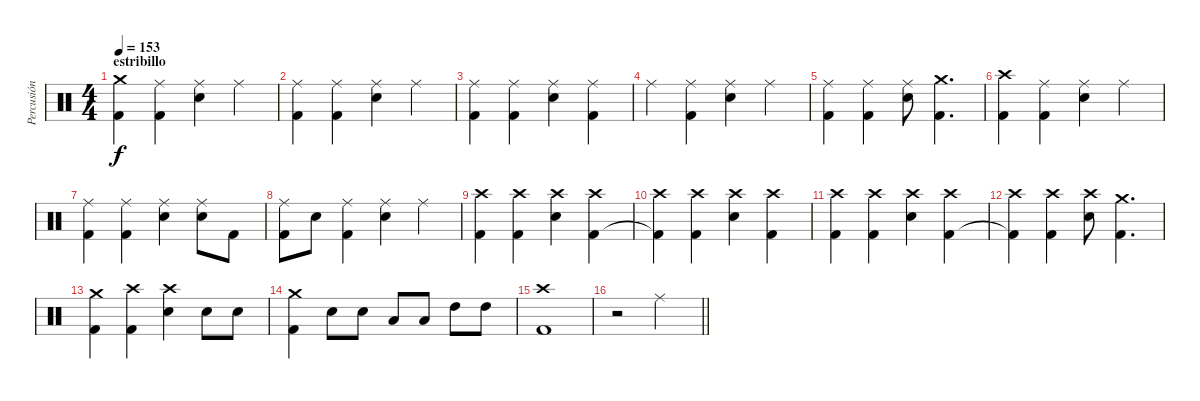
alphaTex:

\track ("Percusión" "Percusión") {instrument percussion}
\staff {score}
\articulation defaults
\ts (4 4)
\section ("" "estribillo")
\tempo 153
\clef neutral
\ks c
("Crash medium (hit)" "Kick (hit) 2").4{dy f} ("Ride (middle)" "Kick (hit) 2").4 ("Ride (middle)" "Electric Snare (hit)").4 "Ride (middle)".4 |
("Ride (middle)" "Kick (hit) 2").4 ("Ride (middle)" "Kick (hit) 2").4 ("Ride (middle)" "Electric Snare (hit)").4 "Ride (middle)".4 |
("Ride (middle)" "Kick (hit) 2").4 ("Ride (middle)" "Kick (hit) 2").4 ("Ride (middle)" "Electric Snare (hit)").4 ("Ride (middle)" "Kick (hit) 2").4 |
"Ride (middle)".4 ("Ride (middle)" "Kick (hit) 2").4 ("Ride (middle)" "Electric Snare (hit)").4 "Ride (middle)".4 |
("Ride (middle)" "Kick (hit) 2").4 ("Ride (middle)" "Kick (hit) 2").4 ("Ride (middle)" "Electric Snare (hit)").8 ("Crash medium (hit)" "Kick (hit) 2").4{d} |
("Crash high (hit)" "Kick (hit) 2").4 ("Ride (middle)" "Kick (hit) 2").4 ("Ride (middle)" "Electric Snare (hit)").4 "Ride (middle)".4 |
("Ride (middle)" "Kick (hit) 2").4 ("Ride (middle)" "Kick (hit) 2").4 ("Ride (middle)" "Electric Snare (hit)").4 ("Ride (middle)" "Electric Snare (hit)").8 "Kick (hit) 2".8 |
("Ride (middle)" "Kick (hit) 2").8 "Electric Snare (hit)".8 ("Ride (middle)" "Kick (hit) 2").4 ("Ride (middle)" "Electric Snare (hit)").4 "Ride (middle)".4 |
("Kick (hit) 2" "Crash high (hit)").4 ("Kick (hit) 2" "Crash high (hit)").4 ("Electric Snare (hit)" "Crash high (hit)").4 ("Kick (hit) 2" "Crash high (hit)").4 |
("Kick (hit) 2"{t} "Crash high (hit)").4 ("Kick (hit) 2" "Crash high (hit)").4 ("Electric Snare (hit)" "Crash high (hit)").4 ("Kick (hit) 2" "Crash high (hit)").4 |
("Kick (hit) 2" "Crash high (hit)").4 ("Kick (hit) 2" "Crash high (hit)").4 ("Electric Snare (hit)" "Crash high (hit)").4 ("Kick (hit) 2" "Crash high (hit)").4 |
("Kick (hit) 2"{t} "Crash high (hit)").4 ("Kick (hit) 2" "Crash high (hit)").4 ("Electric Snare (hit)" "Crash high (hit)").8 ("Kick (hit) 2" "Crash medium (hit)").4{d} |
("Kick (hit) 2" "Crash medium (hit)").4 ("Kick (hit) 2" "Crash high (hit)").4 ("Electric Snare (hit)" "Crash high (hit)").4 "Electric Snare (hit)".8 "Electric Snare (hit)".8 |
("Kick (hit) 2" "Crash medium (hit)").4 "Electric Snare (hit)".8 "Electric Snare (hit)".8 "Low Tom (hit)".8 "Low Tom (hit)".8 "High Tom (hit)".8 "High Tom (hit)".8 |
("Kick (hit) 2" "Crash high (hit)").1 |
\barLineRight lightlight
r.2 "Ride (middle)".2
